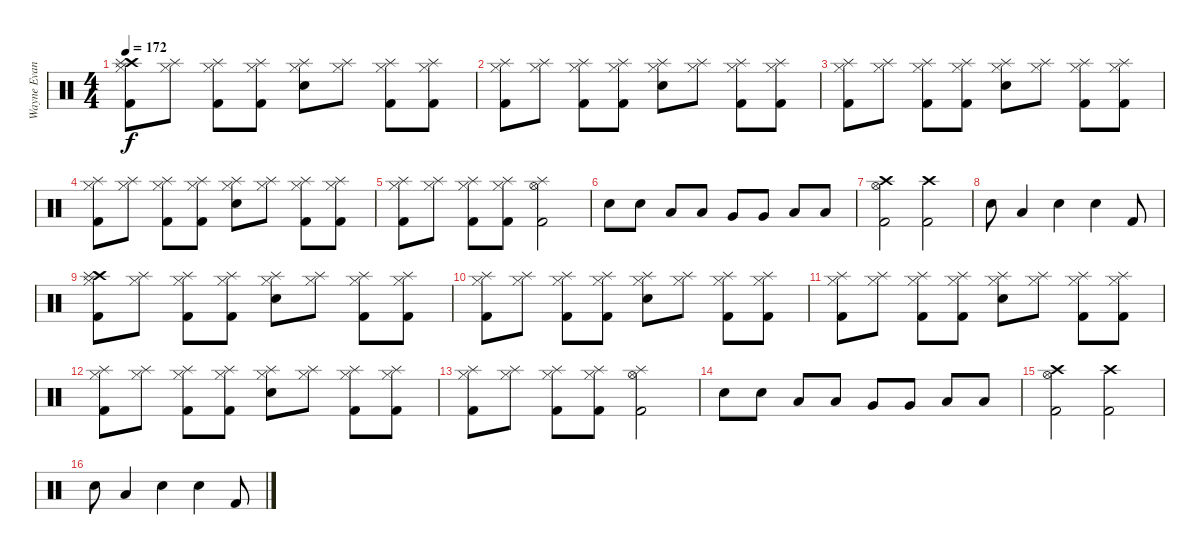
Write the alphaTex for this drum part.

\track ("Wayne Evans  " "Wayne Evan") {instrument percussion}
\staff {score}
\articulation defaults
\ts (4 4)
\tempo 172
\clef neutral
\ks c
("Crash high (hit)" "Splash (hit)" "Hi-Hat (closed)" "Kick (hit) 2").8{dy f} ("Splash (hit)" "Hi-Hat (closed)").8 ("Splash (hit)" "Hi-Hat (closed)" "Kick (hit) 2").8 ("Splash (hit)" "Hi-Hat (closed)" "Kick (hit) 2").8 ("Splash (hit)" "Hi-Hat (closed)" "Electric Snare (hit)").8 ("Splash (hit)" "Hi-Hat (closed)").8 ("Splash (hit)" "Hi-Hat (closed)" "Kick (hit) 2").8 ("Splash (hit)" "Hi-Hat (closed)" "Kick (hit) 2").8 |
("Splash (hit)" "Hi-Hat (closed)" "Kick (hit) 2").8 ("Splash (hit)" "Hi-Hat (closed)").8 ("Splash (hit)" "Hi-Hat (closed)" "Kick (hit) 2").8 ("Splash (hit)" "Hi-Hat (closed)" "Kick (hit) 2").8 ("Splash (hit)" "Hi-Hat (closed)" "Electric Snare (hit)").8 ("Splash (hit)" "Hi-Hat (closed)").8 ("Splash (hit)" "Hi-Hat (closed)" "Kick (hit) 2").8 ("Splash (hit)" "Hi-Hat (closed)" "Kick (hit) 2").8 |
("Splash (hit)" "Hi-Hat (closed)" "Kick (hit) 2").8 ("Splash (hit)" "Hi-Hat (closed)").8 ("Splash (hit)" "Hi-Hat (closed)" "Kick (hit) 2").8 ("Splash (hit)" "Hi-Hat (closed)" "Kick (hit) 2").8 ("Splash (hit)" "Hi-Hat (closed)" "Electric Snare (hit)").8 ("Splash (hit)" "Hi-Hat (closed)").8 ("Splash (hit)" "Hi-Hat (closed)" "Kick (hit) 2").8 ("Splash (hit)" "Hi-Hat (closed)" "Kick (hit) 2").8 |
("Splash (hit)" "Hi-Hat (closed)" "Kick (hit) 2").8 ("Splash (hit)" "Hi-Hat (closed)").8 ("Splash (hit)" "Hi-Hat (closed)" "Kick (hit) 2").8 ("Splash (hit)" "Hi-Hat (closed)" "Kick (hit) 2").8 ("Splash (hit)" "Hi-Hat (closed)" "Electric Snare (hit)").8 ("Splash (hit)" "Hi-Hat (closed)").8 ("Splash (hit)" "Hi-Hat (closed)" "Kick (hit) 2").8 ("Splash (hit)" "Hi-Hat (closed)" "Kick (hit) 2").8 |
("Splash (hit)" "Hi-Hat (closed)" "Kick (hit) 2").8 ("Splash (hit)" "Hi-Hat (closed)").8 ("Splash (hit)" "Hi-Hat (closed)" "Kick (hit) 2").8 ("Splash (hit)" "Hi-Hat (closed)" "Kick (hit) 2").8 ("Splash (hit)" "Hi-Hat (open)" "Kick (hit) 2").2 |
"Electric Snare (hit)".8 "Electric Snare (hit)".8 "Low Tom (hit)".8 "Low Tom (hit)".8 "Very Low Tom (hit)".8 "Very Low Tom (hit)".8 "Low Floor Tom (hit)".8 "Low Floor Tom (hit)".8 |
("Crash high (hit)" "Hi-Hat (open)" "Kick (hit) 2").2 ("Crash high (hit)" "Kick (hit) 2").2 |
"Electric Snare (hit)".8 "Low Tom (hit)".4 "Electric Snare (hit)".4 "Electric Snare (hit)".4 "Kick (hit) 2".8 |
("Crash high (hit)" "Splash (hit)" "Hi-Hat (closed)" "Kick (hit) 2").8 ("Splash (hit)" "Hi-Hat (closed)").8 ("Splash (hit)" "Hi-Hat (closed)" "Kick (hit) 2").8 ("Splash (hit)" "Hi-Hat (closed)" "Kick (hit) 2").8 ("Splash (hit)" "Hi-Hat (closed)" "Electric Snare (hit)").8 ("Splash (hit)" "Hi-Hat (closed)").8 ("Splash (hit)" "Hi-Hat (closed)" "Kick (hit) 2").8 ("Splash (hit)" "Hi-Hat (closed)" "Kick (hit) 2").8 |
("Splash (hit)" "Hi-Hat (closed)" "Kick (hit) 2").8 ("Splash (hit)" "Hi-Hat (closed)").8 ("Splash (hit)" "Hi-Hat (closed)" "Kick (hit) 2").8 ("Splash (hit)" "Hi-Hat (closed)" "Kick (hit) 2").8 ("Splash (hit)" "Hi-Hat (closed)" "Electric Snare (hit)").8 ("Splash (hit)" "Hi-Hat (closed)").8 ("Splash (hit)" "Hi-Hat (closed)" "Kick (hit) 2").8 ("Splash (hit)" "Hi-Hat (closed)" "Kick (hit) 2").8 |
("Splash (hit)" "Hi-Hat (closed)" "Kick (hit) 2").8 ("Splash (hit)" "Hi-Hat (closed)").8 ("Splash (hit)" "Hi-Hat (closed)" "Kick (hit) 2").8 ("Splash (hit)" "Hi-Hat (closed)" "Kick (hit) 2").8 ("Splash (hit)" "Hi-Hat (closed)" "Electric Snare (hit)").8 ("Splash (hit)" "Hi-Hat (closed)").8 ("Splash (hit)" "Hi-Hat (closed)" "Kick (hit) 2").8 ("Splash (hit)" "Hi-Hat (closed)" "Kick (hit) 2").8 |
("Splash (hit)" "Hi-Hat (closed)" "Kick (hit) 2").8 ("Splash (hit)" "Hi-Hat (closed)").8 ("Splash (hit)" "Hi-Hat (closed)" "Kick (hit) 2").8 ("Splash (hit)" "Hi-Hat (closed)" "Kick (hit) 2").8 ("Splash (hit)" "Hi-Hat (closed)" "Electric Snare (hit)").8 ("Splash (hit)" "Hi-Hat (closed)").8 ("Splash (hit)" "Hi-Hat (closed)" "Kick (hit) 2").8 ("Splash (hit)" "Hi-Hat (closed)" "Kick (hit) 2").8 |
("Splash (hit)" "Hi-Hat (closed)" "Kick (hit) 2").8 ("Splash (hit)" "Hi-Hat (closed)").8 ("Splash (hit)" "Hi-Hat (closed)" "Kick (hit) 2").8 ("Splash (hit)" "Hi-Hat (closed)" "Kick (hit) 2").8 ("Splash (hit)" "Hi-Hat (open)" "Kick (hit) 2").2 |
"Electric Snare (hit)".8 "Electric Snare (hit)".8 "Low Tom (hit)".8 "Low Tom (hit)".8 "Very Low Tom (hit)".8 "Very Low Tom (hit)".8 "Low Floor Tom (hit)".8 "Low Floor Tom (hit)".8 |
("Crash high (hit)" "Hi-Hat (open)" "Kick (hit) 2").2 ("Crash high (hit)" "Kick (hit) 2").2 |
"Electric Snare (hit)".8 "Low Tom (hit)".4 "Electric Snare (hit)".4 "Electric Snare (hit)".4 "Kick (hit) 2".8
